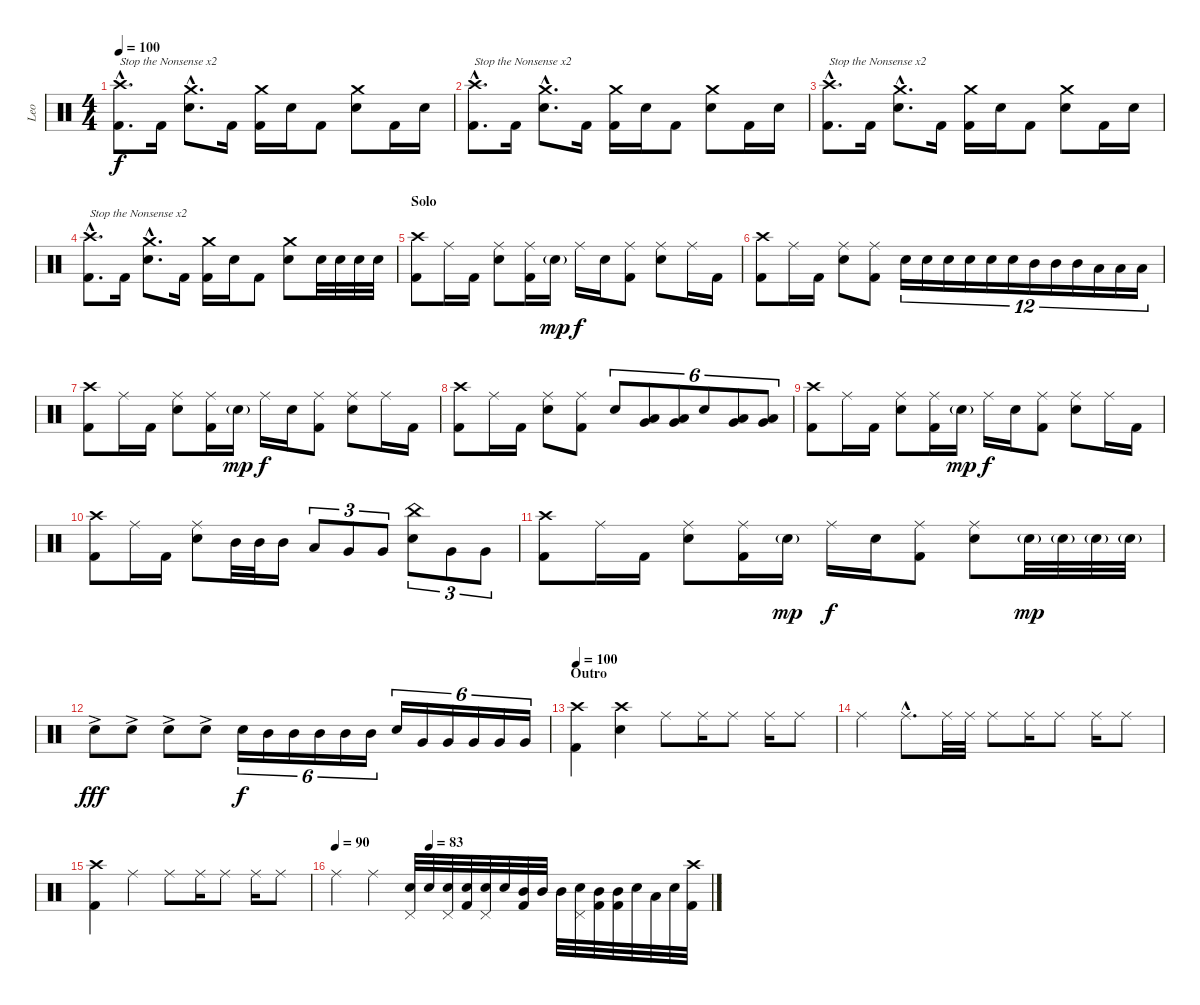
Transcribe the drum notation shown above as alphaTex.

\track ("Leo" "Leo") {instrument percussion}
\staff {score}
\articulation defaults
\ts (4 4)
\tempo 100
\clef neutral
\ks c
("Crash high (hit)"{hac} "Kick (hit) 2"{hac}).8{d txt "Stop the Nonsense x2" dy f} "Kick (hit) 2".16 ("Crash medium (hit)"{hac} "Electric Snare (hit)"{hac}).8{d} "Kick (hit) 2".16 ("Crash medium (hit)" "Kick (hit) 2").16 "Electric Snare (hit)".16 "Kick (hit) 2".8 ("Crash medium (hit)" "Electric Snare (hit)").8 "Kick (hit) 2".16 "Electric Snare (hit)".16 |
("Crash high (hit)"{hac} "Kick (hit) 2"{hac}).8{d txt "Stop the Nonsense x2"} "Kick (hit) 2".16 ("Crash medium (hit)"{hac} "Electric Snare (hit)"{hac}).8{d} "Kick (hit) 2".16 ("Crash medium (hit)" "Kick (hit) 2").16 "Electric Snare (hit)".16 "Kick (hit) 2".8 ("Crash medium (hit)" "Electric Snare (hit)").8 "Kick (hit) 2".16 "Electric Snare (hit)".16 |
("Crash high (hit)"{hac} "Kick (hit) 2"{hac}).8{d txt "Stop the Nonsense x2"} "Kick (hit) 2".16 ("Crash medium (hit)"{hac} "Electric Snare (hit)"{hac}).8{d} "Kick (hit) 2".16 ("Crash medium (hit)" "Kick (hit) 2").16 "Electric Snare (hit)".16 "Kick (hit) 2".8 ("Crash medium (hit)" "Electric Snare (hit)").8 "Kick (hit) 2".16 "Electric Snare (hit)".16 |
("Crash high (hit)"{hac} "Kick (hit) 2"{hac}).8{d txt "Stop the Nonsense x2"} "Kick (hit) 2".16 ("Crash medium (hit)"{hac} "Electric Snare (hit)"{hac}).8{d} "Kick (hit) 2".16 ("Crash medium (hit)" "Kick (hit) 2").16 "Electric Snare (hit)".16 "Kick (hit) 2".8 ("Crash medium (hit)" "Electric Snare (hit)").8 "Electric Snare (hit)".32 "Electric Snare (hit)".32 "Electric Snare (hit)".32 "Electric Snare (hit)".32 |
\section ("" "Solo")
("Crash high (hit)" "Kick (hit) 2").8 "Ride (middle)".16 "Kick (hit) 2".16 ("Ride (middle)" "Electric Snare (hit)").8 ("Ride (middle)" "Kick (hit) 2").16 "Electric Snare (hit)"{g}.16{dy mp} "Ride (middle)".16{dy f} "Electric Snare (hit)".16 ("Ride (middle)" "Kick (hit) 2").8 ("Ride (middle)" "Electric Snare (hit)").8 "Ride (middle)".16 "Kick (hit) 2".16 |
("Crash high (hit)" "Kick (hit) 2").8 "Ride (middle)".16 "Kick (hit) 2".16 ("Ride (middle)" "Electric Snare (hit)").8 ("Ride (middle)" "Kick (hit) 2").8 "Electric Snare (hit)".16{tu (12 8)} "Electric Snare (hit)".16{tu (12 8)} "Electric Snare (hit)".16{tu (12 8)} "Electric Snare (hit)".16{tu (12 8)} "Electric Snare (hit)".16{tu (12 8)} "Electric Snare (hit)".16{tu (12 8)} "Mid Tom (hit)".16{tu (12 8)} "Mid Tom (hit)".16{tu (12 8)} "Mid Tom (hit)".16{tu (12 8)} "Low Tom (hit)".16{tu (12 8)} "Low Tom (hit)".16{tu (12 8)} "Low Tom (hit)".16{tu (12 8)} |
("Crash high (hit)" "Kick (hit) 2").8 "Ride (middle)".16 "Kick (hit) 2".16 ("Ride (middle)" "Electric Snare (hit)").8 ("Ride (middle)" "Kick (hit) 2").16 "Electric Snare (hit)"{g}.16{dy mp} "Ride (middle)".16{dy f} "Electric Snare (hit)".16 ("Ride (middle)" "Kick (hit) 2").8 ("Ride (middle)" "Electric Snare (hit)").8 "Ride (middle)".16 "Kick (hit) 2".16 |
("Crash high (hit)" "Kick (hit) 2").8 "Ride (middle)".16 "Kick (hit) 2".16 ("Ride (middle)" "Electric Snare (hit)").8 ("Ride (middle)" "Kick (hit) 2").8 "Electric Snare (hit)".8{tu (6 4)} ("Low Tom (hit)" "Very Low Tom (hit)").8{tu (6 4)} ("Low Tom (hit)" "Very Low Tom (hit)").8{tu (6 4)} "Electric Snare (hit)".8{tu (6 4)} ("Low Tom (hit)" "Very Low Tom (hit)").8{tu (6 4)} ("Low Tom (hit)" "Very Low Tom (hit)").8{tu (6 4)} |
("Crash high (hit)" "Kick (hit) 2").8 "Ride (middle)".16 "Kick (hit) 2".16 ("Ride (middle)" "Electric Snare (hit)").8 ("Ride (middle)" "Kick (hit) 2").16 "Electric Snare (hit)"{g}.16{dy mp} "Ride (middle)".16{dy f} "Electric Snare (hit)".16 ("Ride (middle)" "Kick (hit) 2").8 ("Ride (middle)" "Electric Snare (hit)").8 "Ride (middle)".16 "Kick (hit) 2".16 |
("Crash high (hit)" "Kick (hit) 2").8 "Ride (middle)".16 "Kick (hit) 2".16 ("Ride (middle)" "Electric Snare (hit)").8 "Mid Tom (hit)".32 "Mid Tom (hit)".32 "Mid Tom (hit)".16 "Low Tom (hit)".8{tu (3 2)} "Very Low Tom (hit)".8{tu (3 2)} "Very Low Tom (hit)".8{tu (3 2)} ("China (hit)" "Electric Snare (hit)").8{tu (3 2)} "Very Low Tom (hit)".8{tu (3 2)} "Very Low Tom (hit)".8{tu (3 2)} |
("Crash high (hit)" "Kick (hit) 2").8 "Ride (middle)".16 "Kick (hit) 2".16 ("Ride (middle)" "Electric Snare (hit)").8 ("Ride (middle)" "Kick (hit) 2").16 "Electric Snare (hit)"{g}.16{dy mp} "Ride (middle)".16{dy f} "Electric Snare (hit)".16 ("Ride (middle)" "Kick (hit) 2").8 ("Ride (middle)" "Electric Snare (hit)").8 "Electric Snare (hit)"{g}.32{dy mp} "Electric Snare (hit)"{g}.32 "Electric Snare (hit)"{g}.32 "Electric Snare (hit)"{g}.32 |
"Electric Snare (hit)"{ac}.8{dy fff} "Electric Snare (hit)"{ac}.8 "Electric Snare (hit)"{ac}.8 "Electric Snare (hit)"{ac}.8 "Electric Snare (hit)".16{tu (6 4) dy f} "Mid Tom (hit)".16{tu (6 4)} "Mid Tom (hit)".16{tu (6 4)} "Mid Tom (hit)".16{tu (6 4)} "Mid Tom (hit)".16{tu (6 4)} "Mid Tom (hit)".16{tu (6 4)} "Electric Snare (hit)".16{tu (6 4)} "Very Low Tom (hit)".16{tu (6 4)} "Very Low Tom (hit)".16{tu (6 4)} "Very Low Tom (hit)".16{tu (6 4)} "Very Low Tom (hit)".16{tu (6 4)} "Very Low Tom (hit)".16{tu (6 4)} |
\section ("" "Outro")
\tempo 100
("Crash high (hit)" "Kick (hit) 2").4 ("Crash high (hit)" "Electric Snare (hit)").4 "Ride (middle)".8 "Ride (middle)".16 "Ride (middle)".8 "Ride (middle)".16 "Ride (middle)".8 |
"Ride (middle)".4 "Ride (middle)"{hac}.8{d} "Ride (middle)".32 "Ride (middle)".32 "Ride (middle)".8 "Ride (middle)".16 "Ride (middle)".8 "Ride (middle)".16 "Ride (middle)".8 |
("Crash high (hit)" "Kick (hit) 2").4 "Ride (middle)".4 "Ride (middle)".8 "Ride (middle)".16 "Ride (middle)".8 "Ride (middle)".16 "Ride (middle)".8 |
\tempo 90
\tempo (83 0.25)
"Ride (middle)".4 "Ride (middle)".4 ("Electric Snare (hit)" "Pedal Hi-Hat (hit)").32 "Electric Snare (hit)".32 ("Electric Snare (hit)" "Pedal Hi-Hat (hit)").32 ("Electric Snare (hit)" "Kick (hit) 2").32 ("Electric Snare (hit)" "Pedal Hi-Hat (hit)").32 "Electric Snare (hit)".32 ("Mid Tom (hit)" "Kick (hit) 2").32 "Mid Tom (hit)".32 "Mid Tom (hit)".32 ("Electric Snare (hit)" "Pedal Hi-Hat (hit)").32 ("Mid Tom (hit)" "Kick (hit) 2").32 ("Mid Tom (hit)" "Kick (hit) 2").32 "Electric Snare (hit)".32 "Low Tom (hit)".32 "Electric Snare (hit)".32 ("Crash high (hit)" "Kick (hit) 2").32
